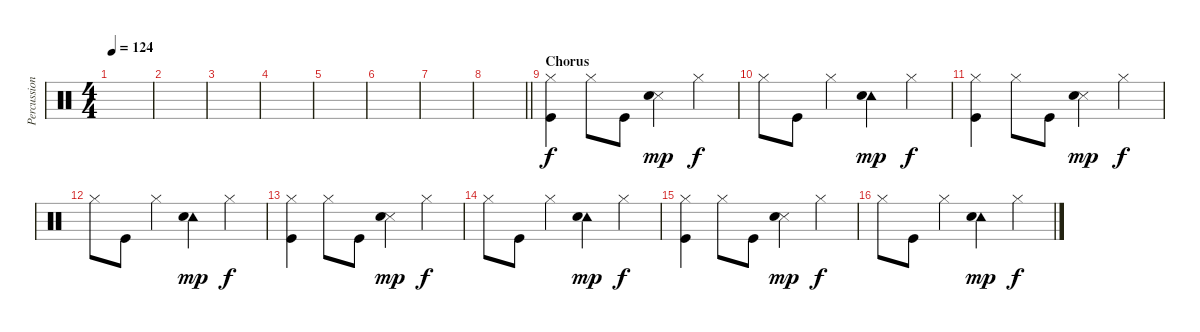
\track ("Percussion" "Percussion") {instrument percussion}
\staff {score}
\articulation defaults
\ts (4 4)
\tempo 124
\clef neutral
\ks c
|
|
|
|
|
|
|
\barLineRight lightlight
|
\section ("" "Chorus")
("Hi-Hat (closed)" "Kick (hit)").4 "Hi-Hat (closed)".8 "Kick (hit)".8 ("Snare (side stick) 3" "Snare (hit) 2").4{dy mp} "Hi-Hat (closed)".4{dy f} |
"Hi-Hat (closed)".8 "Kick (hit)".8 "Hi-Hat (closed)".4 ("Tambourine (hit)" "Snare (hit) 2").4{dy mp} "Hi-Hat (closed)".4{dy f} |
("Hi-Hat (closed)" "Kick (hit)").4 "Hi-Hat (closed)".8 "Kick (hit)".8 ("Snare (side stick) 3" "Snare (hit) 2").4{dy mp} "Hi-Hat (closed)".4{dy f} |
"Hi-Hat (closed)".8 "Kick (hit)".8 "Hi-Hat (closed)".4 ("Tambourine (hit)" "Snare (hit) 2").4{dy mp} "Hi-Hat (closed)".4{dy f} |
("Hi-Hat (closed)" "Kick (hit)").4 "Hi-Hat (closed)".8 "Kick (hit)".8 ("Snare (side stick) 3" "Snare (hit) 2").4{dy mp} "Hi-Hat (closed)".4{dy f} |
"Hi-Hat (closed)".8 "Kick (hit)".8 "Hi-Hat (closed)".4 ("Tambourine (hit)" "Snare (hit) 2").4{dy mp} "Hi-Hat (closed)".4{dy f} |
("Hi-Hat (closed)" "Kick (hit)").4 "Hi-Hat (closed)".8 "Kick (hit)".8 ("Snare (side stick) 3" "Snare (hit) 2").4{dy mp} "Hi-Hat (closed)".4{dy f} |
"Hi-Hat (closed)".8 "Kick (hit)".8 "Hi-Hat (closed)".4 ("Tambourine (hit)" "Snare (hit) 2").4{dy mp} "Hi-Hat (closed)".4{dy f}
